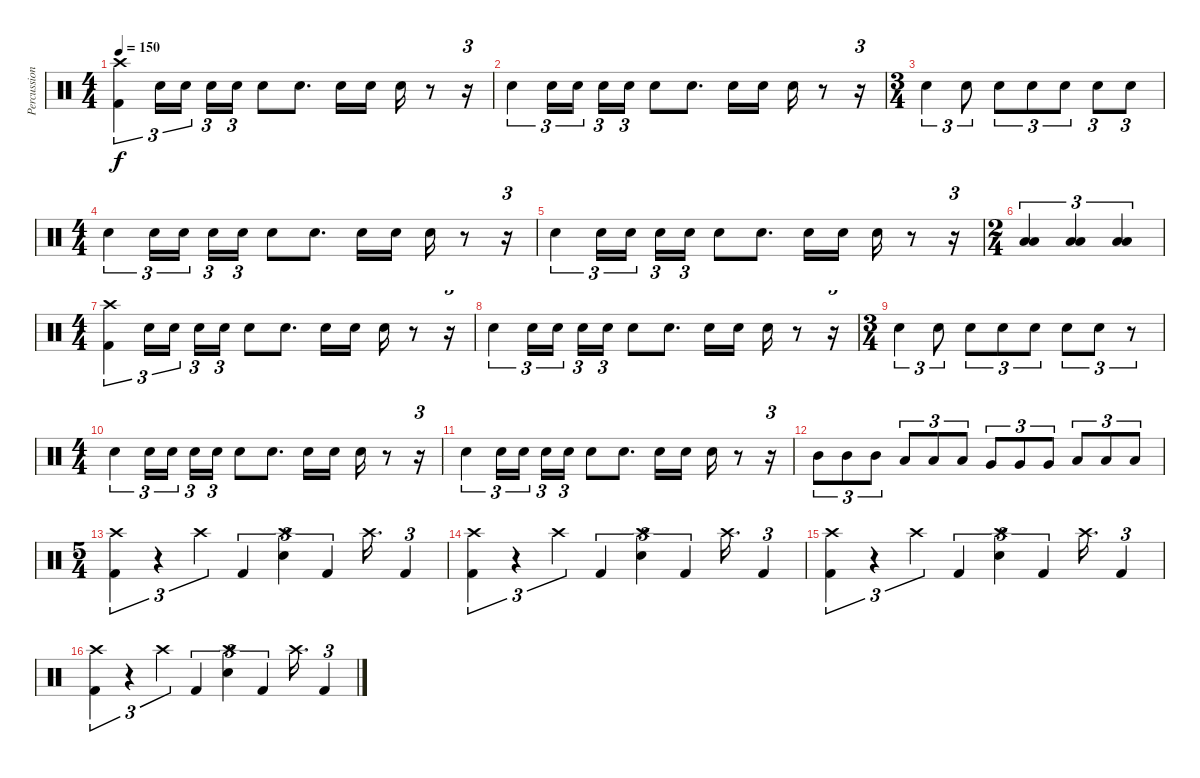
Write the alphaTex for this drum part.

\track ("Percussion" "Percussion") {instrument percussion}
\staff {score}
\articulation defaults
\ts (4 4)
\tempo 150
\clef neutral
\ks c
("Crash high (hit)" "Kick (hit) 2").4{tu (3 2) dy f} "Electric Snare (hit)".16{tu (3 2)} "Electric Snare (hit)".16{tu (3 2)} "Electric Snare (hit)".16{tu (3 2)} "Electric Snare (hit)".16{tu (3 2)} "Electric Snare (hit)".8 "Electric Snare (hit)".8{d} "Electric Snare (hit)".16 "Electric Snare (hit)".16 "Electric Snare (hit)".16 r.8 r.16{tu (3 2)} |
"Electric Snare (hit)".4{tu (3 2)} "Electric Snare (hit)".16{tu (3 2)} "Electric Snare (hit)".16{tu (3 2)} "Electric Snare (hit)".16{tu (3 2)} "Electric Snare (hit)".16{tu (3 2)} "Electric Snare (hit)".8 "Electric Snare (hit)".8{d} "Electric Snare (hit)".16 "Electric Snare (hit)".16 "Electric Snare (hit)".16 r.8 r.16{tu (3 2)} |
\ts (3 4)
"Electric Snare (hit)".4{tu (3 2)} "Electric Snare (hit)".8{tu (3 2)} "Electric Snare (hit)".8{tu (3 2)} "Electric Snare (hit)".8{tu (3 2)} "Electric Snare (hit)".8{tu (3 2)} "Electric Snare (hit)".8{tu (3 2)} "Electric Snare (hit)".8{tu (3 2)} |
\ts (4 4)
"Electric Snare (hit)".4{tu (3 2)} "Electric Snare (hit)".16{tu (3 2)} "Electric Snare (hit)".16{tu (3 2)} "Electric Snare (hit)".16{tu (3 2)} "Electric Snare (hit)".16{tu (3 2)} "Electric Snare (hit)".8 "Electric Snare (hit)".8{d} "Electric Snare (hit)".16 "Electric Snare (hit)".16 "Electric Snare (hit)".16 r.8 r.16{tu (3 2)} |
"Electric Snare (hit)".4{tu (3 2)} "Electric Snare (hit)".16{tu (3 2)} "Electric Snare (hit)".16{tu (3 2)} "Electric Snare (hit)".16{tu (3 2)} "Electric Snare (hit)".16{tu (3 2)} "Electric Snare (hit)".8 "Electric Snare (hit)".8{d} "Electric Snare (hit)".16 "Electric Snare (hit)".16 "Electric Snare (hit)".16 r.8 r.16{tu (3 2)} |
\ts (2 4)
("Low Tom (hit)" "Low Tom (hit)").4{tu (3 2)} ("Low Tom (hit)" "Low Tom (hit)").4{tu (3 2)} ("Low Tom (hit)" "Low Tom (hit)").4{tu (3 2)} |
\ts (4 4)
("Crash high (hit)" "Kick (hit) 2").4{tu (3 2)} "Electric Snare (hit)".16{tu (3 2)} "Electric Snare (hit)".16{tu (3 2)} "Electric Snare (hit)".16{tu (3 2)} "Electric Snare (hit)".16{tu (3 2)} "Electric Snare (hit)".8 "Electric Snare (hit)".8{d} "Electric Snare (hit)".16 "Electric Snare (hit)".16 "Electric Snare (hit)".16 r.8 r.16{tu (3 2)} |
"Electric Snare (hit)".4{tu (3 2)} "Electric Snare (hit)".16{tu (3 2)} "Electric Snare (hit)".16{tu (3 2)} "Electric Snare (hit)".16{tu (3 2)} "Electric Snare (hit)".16{tu (3 2)} "Electric Snare (hit)".8 "Electric Snare (hit)".8{d} "Electric Snare (hit)".16 "Electric Snare (hit)".16 "Electric Snare (hit)".16 r.8 r.16{tu (3 2)} |
\ts (3 4)
"Electric Snare (hit)".4{tu (3 2)} "Electric Snare (hit)".8{tu (3 2)} "Electric Snare (hit)".8{tu (3 2)} "Electric Snare (hit)".8{tu (3 2)} "Electric Snare (hit)".8{tu (3 2)} "Electric Snare (hit)".8{tu (3 2)} "Electric Snare (hit)".8{tu (3 2)} r.8{tu (3 2)} |
\ts (4 4)
"Electric Snare (hit)".4{tu (3 2)} "Electric Snare (hit)".16{tu (3 2)} "Electric Snare (hit)".16{tu (3 2)} "Electric Snare (hit)".16{tu (3 2)} "Electric Snare (hit)".16{tu (3 2)} "Electric Snare (hit)".8 "Electric Snare (hit)".8{d} "Electric Snare (hit)".16 "Electric Snare (hit)".16 "Electric Snare (hit)".16 r.8 r.16{tu (3 2)} |
"Electric Snare (hit)".4{tu (3 2)} "Electric Snare (hit)".16{tu (3 2)} "Electric Snare (hit)".16{tu (3 2)} "Electric Snare (hit)".16{tu (3 2)} "Electric Snare (hit)".16{tu (3 2)} "Electric Snare (hit)".8 "Electric Snare (hit)".8{d} "Electric Snare (hit)".16 "Electric Snare (hit)".16 "Electric Snare (hit)".16 r.8 r.16{tu (3 2)} |
"Mid Tom (hit)".8{tu (3 2)} "Mid Tom (hit)".8{tu (3 2)} "Mid Tom (hit)".8{tu (3 2)} "Low Tom (hit)".8{tu (3 2)} "Low Tom (hit)".8{tu (3 2)} "Low Tom (hit)".8{tu (3 2)} "Very Low Tom (hit)".8{tu (3 2)} "Very Low Tom (hit)".8{tu (3 2)} "Very Low Tom (hit)".8{tu (3 2)} "Low Floor Tom (hit)".8{tu (3 2)} "Low Floor Tom (hit)".8{tu (3 2)} "Low Floor Tom (hit)".8{tu (3 2)} |
\ts (5 4)
("Crash high (hit)" "Kick (hit) 2").4{tu (3 2)} r.4{tu (3 2)} "Crash high (hit)".4{tu (3 2)} "Kick (hit) 2".4{tu (3 2)} ("Crash high (hit)" "Electric Snare (hit)").4{tu (3 2)} "Kick (hit) 2".4{tu (3 2)} "Crash high (hit)".16{d} "Kick (hit) 2".4{tu (3 2)} |
("Crash high (hit)" "Kick (hit) 2").4{tu (3 2)} r.4{tu (3 2)} "Crash high (hit)".4{tu (3 2)} "Kick (hit) 2".4{tu (3 2)} ("Crash high (hit)" "Electric Snare (hit)").4{tu (3 2)} "Kick (hit) 2".4{tu (3 2)} "Crash high (hit)".16{d} "Kick (hit) 2".4{tu (3 2)} |
("Crash high (hit)" "Kick (hit) 2").4{tu (3 2)} r.4{tu (3 2)} "Crash high (hit)".4{tu (3 2)} "Kick (hit) 2".4{tu (3 2)} ("Crash high (hit)" "Electric Snare (hit)").4{tu (3 2)} "Kick (hit) 2".4{tu (3 2)} "Crash high (hit)".16{d} "Kick (hit) 2".4{tu (3 2)} |
("Crash high (hit)" "Kick (hit) 2").4{tu (3 2)} r.4{tu (3 2)} "Crash high (hit)".4{tu (3 2)} "Kick (hit) 2".4{tu (3 2)} ("Crash high (hit)" "Electric Snare (hit)").4{tu (3 2)} "Kick (hit) 2".4{tu (3 2)} "Crash high (hit)".16{d} "Kick (hit) 2".4{tu (3 2)}
